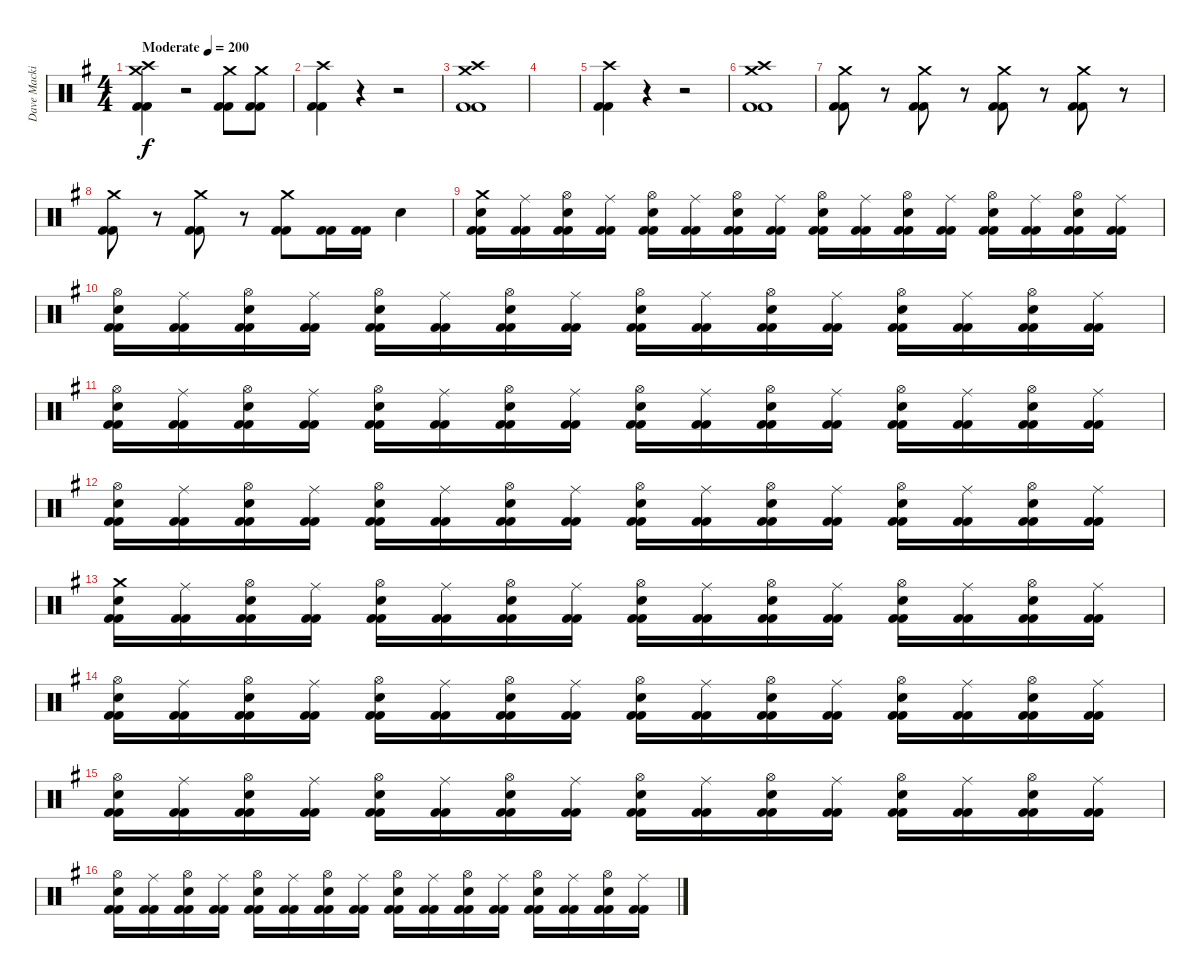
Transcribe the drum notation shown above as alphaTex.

\track ("Dave Mackintosh" "Dave Macki") {instrument percussion}
\staff {score}
\articulation defaults
\ts (4 4)
\tempo (200 "Moderate")
\clef neutral
\ks g
("Crash medium (hit)" "Crash high (hit)" "Kick (hit) 2" "Kick (hit) 2").4{dy f} r.2{volume 0} ("Crash medium (hit)" "Kick (hit) 2" "Kick (hit) 2").8{volume 16} ("Crash medium (hit)" "Kick (hit) 2" "Kick (hit) 2").8 |
("Crash high (hit)" "Kick (hit) 2" "Kick (hit) 2").4 r.4{volume 0} r.2 |
("Crash medium (hit)" "Crash high (hit)" "Kick (hit) 2" "Kick (hit) 2").1{volume 16} |
|
("Crash high (hit)" "Kick (hit) 2" "Kick (hit) 2").4 r.4{volume 0} r.2 |
("Crash medium (hit)" "Crash high (hit)" "Kick (hit) 2" "Kick (hit) 2").1{volume 16} |
("Crash medium (hit)" "Kick (hit) 2" "Kick (hit) 2").8 r.8 ("Crash medium (hit)" "Kick (hit) 2" "Kick (hit) 2").8 r.8 ("Crash medium (hit)" "Kick (hit) 2" "Kick (hit) 2").8 r.8 ("Crash medium (hit)" "Kick (hit) 2" "Kick (hit) 2").8 r.8 |
("Crash medium (hit)" "Kick (hit) 2" "Kick (hit) 2").8 r.8 ("Crash medium (hit)" "Kick (hit) 2" "Kick (hit) 2").8 r.8 ("Crash medium (hit)" "Kick (hit) 2" "Kick (hit) 2").8 ("Kick (hit) 2" "Kick (hit) 2").16 ("Kick (hit) 2" "Kick (hit) 2").16 "Electric Snare (hit)".4 |
("Crash medium (hit)" "Electric Snare (hit)" "Kick (hit) 2" "Kick (hit) 2").16 ("Ride (middle)" "Kick (hit) 2" "Kick (hit) 2").16 ("Hi-Hat (open)" "Electric Snare (hit)" "Kick (hit) 2" "Kick (hit) 2").16 ("Ride (middle)" "Kick (hit) 2" "Kick (hit) 2").16 ("Hi-Hat (open)" "Electric Snare (hit)" "Kick (hit) 2" "Kick (hit) 2").16 ("Ride (middle)" "Kick (hit) 2" "Kick (hit) 2").16 ("Hi-Hat (open)" "Electric Snare (hit)" "Kick (hit) 2" "Kick (hit) 2").16 ("Ride (middle)" "Kick (hit) 2" "Kick (hit) 2").16 ("Hi-Hat (open)" "Electric Snare (hit)" "Kick (hit) 2" "Kick (hit) 2").16 ("Ride (middle)" "Kick (hit) 2" "Kick (hit) 2").16 ("Hi-Hat (open)" "Electric Snare (hit)" "Kick (hit) 2" "Kick (hit) 2").16 ("Ride (middle)" "Kick (hit) 2" "Kick (hit) 2").16 ("Hi-Hat (open)" "Electric Snare (hit)" "Kick (hit) 2" "Kick (hit) 2").16 ("Ride (middle)" "Kick (hit) 2" "Kick (hit) 2").16 ("Hi-Hat (open)" "Electric Snare (hit)" "Kick (hit) 2" "Kick (hit) 2").16 ("Ride (middle)" "Kick (hit) 2" "Kick (hit) 2").16 |
("Hi-Hat (open)" "Electric Snare (hit)" "Kick (hit) 2" "Kick (hit) 2").16 ("Ride (middle)" "Kick (hit) 2" "Kick (hit) 2").16 ("Hi-Hat (open)" "Electric Snare (hit)" "Kick (hit) 2" "Kick (hit) 2").16 ("Ride (middle)" "Kick (hit) 2" "Kick (hit) 2").16 ("Hi-Hat (open)" "Electric Snare (hit)" "Kick (hit) 2" "Kick (hit) 2").16 ("Ride (middle)" "Kick (hit) 2" "Kick (hit) 2").16 ("Hi-Hat (open)" "Electric Snare (hit)" "Kick (hit) 2" "Kick (hit) 2").16 ("Ride (middle)" "Kick (hit) 2" "Kick (hit) 2").16 ("Hi-Hat (open)" "Electric Snare (hit)" "Kick (hit) 2" "Kick (hit) 2").16 ("Ride (middle)" "Kick (hit) 2" "Kick (hit) 2").16 ("Hi-Hat (open)" "Electric Snare (hit)" "Kick (hit) 2" "Kick (hit) 2").16 ("Ride (middle)" "Kick (hit) 2" "Kick (hit) 2").16 ("Hi-Hat (open)" "Electric Snare (hit)" "Kick (hit) 2" "Kick (hit) 2").16 ("Ride (middle)" "Kick (hit) 2" "Kick (hit) 2").16 ("Hi-Hat (open)" "Electric Snare (hit)" "Kick (hit) 2" "Kick (hit) 2").16 ("Ride (middle)" "Kick (hit) 2" "Kick (hit) 2").16 |
("Hi-Hat (open)" "Electric Snare (hit)" "Kick (hit) 2" "Kick (hit) 2").16 ("Ride (middle)" "Kick (hit) 2" "Kick (hit) 2").16 ("Hi-Hat (open)" "Electric Snare (hit)" "Kick (hit) 2" "Kick (hit) 2").16 ("Ride (middle)" "Kick (hit) 2" "Kick (hit) 2").16 ("Hi-Hat (open)" "Electric Snare (hit)" "Kick (hit) 2" "Kick (hit) 2").16 ("Ride (middle)" "Kick (hit) 2" "Kick (hit) 2").16 ("Hi-Hat (open)" "Electric Snare (hit)" "Kick (hit) 2" "Kick (hit) 2").16 ("Ride (middle)" "Kick (hit) 2" "Kick (hit) 2").16 ("Hi-Hat (open)" "Electric Snare (hit)" "Kick (hit) 2" "Kick (hit) 2").16 ("Ride (middle)" "Kick (hit) 2" "Kick (hit) 2").16 ("Hi-Hat (open)" "Electric Snare (hit)" "Kick (hit) 2" "Kick (hit) 2").16 ("Ride (middle)" "Kick (hit) 2" "Kick (hit) 2").16 ("Hi-Hat (open)" "Electric Snare (hit)" "Kick (hit) 2" "Kick (hit) 2").16 ("Ride (middle)" "Kick (hit) 2" "Kick (hit) 2").16 ("Hi-Hat (open)" "Electric Snare (hit)" "Kick (hit) 2" "Kick (hit) 2").16 ("Ride (middle)" "Kick (hit) 2" "Kick (hit) 2").16 |
("Hi-Hat (open)" "Electric Snare (hit)" "Kick (hit) 2" "Kick (hit) 2").16 ("Ride (middle)" "Kick (hit) 2" "Kick (hit) 2").16 ("Hi-Hat (open)" "Electric Snare (hit)" "Kick (hit) 2" "Kick (hit) 2").16 ("Ride (middle)" "Kick (hit) 2" "Kick (hit) 2").16 ("Hi-Hat (open)" "Electric Snare (hit)" "Kick (hit) 2" "Kick (hit) 2").16 ("Ride (middle)" "Kick (hit) 2" "Kick (hit) 2").16 ("Hi-Hat (open)" "Electric Snare (hit)" "Kick (hit) 2" "Kick (hit) 2").16 ("Ride (middle)" "Kick (hit) 2" "Kick (hit) 2").16 ("Hi-Hat (open)" "Electric Snare (hit)" "Kick (hit) 2" "Kick (hit) 2").16 ("Ride (middle)" "Kick (hit) 2" "Kick (hit) 2").16 ("Hi-Hat (open)" "Electric Snare (hit)" "Kick (hit) 2" "Kick (hit) 2").16 ("Ride (middle)" "Kick (hit) 2" "Kick (hit) 2").16 ("Hi-Hat (open)" "Electric Snare (hit)" "Kick (hit) 2" "Kick (hit) 2").16 ("Ride (middle)" "Kick (hit) 2" "Kick (hit) 2").16 ("Hi-Hat (open)" "Electric Snare (hit)" "Kick (hit) 2" "Kick (hit) 2").16 ("Ride (middle)" "Kick (hit) 2" "Kick (hit) 2").16 |
("Crash medium (hit)" "Electric Snare (hit)" "Kick (hit) 2" "Kick (hit) 2").16 ("Ride (middle)" "Kick (hit) 2" "Kick (hit) 2").16 ("Hi-Hat (open)" "Electric Snare (hit)" "Kick (hit) 2" "Kick (hit) 2").16 ("Ride (middle)" "Kick (hit) 2" "Kick (hit) 2").16 ("Hi-Hat (open)" "Electric Snare (hit)" "Kick (hit) 2" "Kick (hit) 2").16 ("Ride (middle)" "Kick (hit) 2" "Kick (hit) 2").16 ("Hi-Hat (open)" "Electric Snare (hit)" "Kick (hit) 2" "Kick (hit) 2").16 ("Ride (middle)" "Kick (hit) 2" "Kick (hit) 2").16 ("Hi-Hat (open)" "Electric Snare (hit)" "Kick (hit) 2" "Kick (hit) 2").16 ("Ride (middle)" "Kick (hit) 2" "Kick (hit) 2").16 ("Hi-Hat (open)" "Electric Snare (hit)" "Kick (hit) 2" "Kick (hit) 2").16 ("Ride (middle)" "Kick (hit) 2" "Kick (hit) 2").16 ("Hi-Hat (open)" "Electric Snare (hit)" "Kick (hit) 2" "Kick (hit) 2").16 ("Ride (middle)" "Kick (hit) 2" "Kick (hit) 2").16 ("Hi-Hat (open)" "Electric Snare (hit)" "Kick (hit) 2" "Kick (hit) 2").16 ("Ride (middle)" "Kick (hit) 2" "Kick (hit) 2").16 |
("Hi-Hat (open)" "Electric Snare (hit)" "Kick (hit) 2" "Kick (hit) 2").16 ("Ride (middle)" "Kick (hit) 2" "Kick (hit) 2").16 ("Hi-Hat (open)" "Electric Snare (hit)" "Kick (hit) 2" "Kick (hit) 2").16 ("Ride (middle)" "Kick (hit) 2" "Kick (hit) 2").16 ("Hi-Hat (open)" "Electric Snare (hit)" "Kick (hit) 2" "Kick (hit) 2").16 ("Ride (middle)" "Kick (hit) 2" "Kick (hit) 2").16 ("Hi-Hat (open)" "Electric Snare (hit)" "Kick (hit) 2" "Kick (hit) 2").16 ("Ride (middle)" "Kick (hit) 2" "Kick (hit) 2").16 ("Hi-Hat (open)" "Electric Snare (hit)" "Kick (hit) 2" "Kick (hit) 2").16 ("Ride (middle)" "Kick (hit) 2" "Kick (hit) 2").16 ("Hi-Hat (open)" "Electric Snare (hit)" "Kick (hit) 2" "Kick (hit) 2").16 ("Ride (middle)" "Kick (hit) 2" "Kick (hit) 2").16 ("Hi-Hat (open)" "Electric Snare (hit)" "Kick (hit) 2" "Kick (hit) 2").16 ("Ride (middle)" "Kick (hit) 2" "Kick (hit) 2").16 ("Hi-Hat (open)" "Electric Snare (hit)" "Kick (hit) 2" "Kick (hit) 2").16 ("Ride (middle)" "Kick (hit) 2" "Kick (hit) 2").16 |
("Hi-Hat (open)" "Electric Snare (hit)" "Kick (hit) 2" "Kick (hit) 2").16 ("Ride (middle)" "Kick (hit) 2" "Kick (hit) 2").16 ("Hi-Hat (open)" "Electric Snare (hit)" "Kick (hit) 2" "Kick (hit) 2").16 ("Ride (middle)" "Kick (hit) 2" "Kick (hit) 2").16 ("Hi-Hat (open)" "Electric Snare (hit)" "Kick (hit) 2" "Kick (hit) 2").16 ("Ride (middle)" "Kick (hit) 2" "Kick (hit) 2").16 ("Hi-Hat (open)" "Electric Snare (hit)" "Kick (hit) 2" "Kick (hit) 2").16 ("Ride (middle)" "Kick (hit) 2" "Kick (hit) 2").16 ("Hi-Hat (open)" "Electric Snare (hit)" "Kick (hit) 2" "Kick (hit) 2").16 ("Ride (middle)" "Kick (hit) 2" "Kick (hit) 2").16 ("Hi-Hat (open)" "Electric Snare (hit)" "Kick (hit) 2" "Kick (hit) 2").16 ("Ride (middle)" "Kick (hit) 2" "Kick (hit) 2").16 ("Hi-Hat (open)" "Electric Snare (hit)" "Kick (hit) 2" "Kick (hit) 2").16 ("Ride (middle)" "Kick (hit) 2" "Kick (hit) 2").16 ("Hi-Hat (open)" "Electric Snare (hit)" "Kick (hit) 2" "Kick (hit) 2").16 ("Ride (middle)" "Kick (hit) 2" "Kick (hit) 2").16 |
("Hi-Hat (open)" "Electric Snare (hit)" "Kick (hit) 2" "Kick (hit) 2").16 ("Ride (middle)" "Kick (hit) 2" "Kick (hit) 2").16 ("Hi-Hat (open)" "Electric Snare (hit)" "Kick (hit) 2" "Kick (hit) 2").16 ("Ride (middle)" "Kick (hit) 2" "Kick (hit) 2").16 ("Hi-Hat (open)" "Electric Snare (hit)" "Kick (hit) 2" "Kick (hit) 2").16 ("Ride (middle)" "Kick (hit) 2" "Kick (hit) 2").16 ("Hi-Hat (open)" "Electric Snare (hit)" "Kick (hit) 2" "Kick (hit) 2").16 ("Ride (middle)" "Kick (hit) 2" "Kick (hit) 2").16 ("Hi-Hat (open)" "Electric Snare (hit)" "Kick (hit) 2" "Kick (hit) 2").16 ("Ride (middle)" "Kick (hit) 2" "Kick (hit) 2").16 ("Hi-Hat (open)" "Electric Snare (hit)" "Kick (hit) 2" "Kick (hit) 2").16 ("Ride (middle)" "Kick (hit) 2" "Kick (hit) 2").16 ("Hi-Hat (open)" "Electric Snare (hit)" "Kick (hit) 2" "Kick (hit) 2").16 ("Ride (middle)" "Kick (hit) 2" "Kick (hit) 2").16 ("Hi-Hat (open)" "Electric Snare (hit)" "Kick (hit) 2" "Kick (hit) 2").16 ("Ride (middle)" "Kick (hit) 2" "Kick (hit) 2").16
